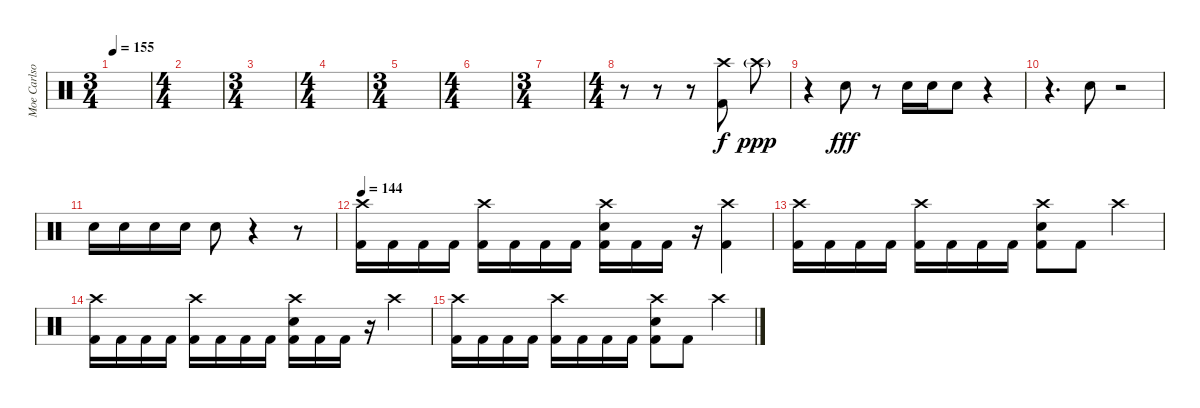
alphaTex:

\track ("Moe Carlson" "Moe Carlso") {solo instrument percussion}
\staff {score}
\articulation defaults
\ts (3 4)
\tempo 155
\clef neutral
\ks c
|
\ts (4 4)
|
\ts (3 4)
|
\ts (4 4)
|
\ts (3 4)
|
\ts (4 4)
|
\ts (3 4)
|
\ts (4 4)
r.8 r.8 r.8 ("Crash high (hit)" "Kick (hit) 2").8 "Crash high (hit)"{g}.8{dy ppp} |
r.4 "Electric Snare (hit)".8{dy fff} r.8 "Electric Snare (hit)".16 "Electric Snare (hit)".16 "Electric Snare (hit)".8 r.4 |
r.4{d} "Electric Snare (hit)".8 r.2 |
"Electric Snare (hit)".16 "Electric Snare (hit)".16 "Electric Snare (hit)".16 "Electric Snare (hit)".16 "Electric Snare (hit)".8 r.4 r.8 |
\tempo 144
("Crash high (hit)" "Kick (hit) 2").16 "Kick (hit) 2".16 "Kick (hit) 2".16 "Kick (hit) 2".16 ("Crash high (hit)" "Kick (hit) 2").16 "Kick (hit) 2".16 "Kick (hit) 2".16 "Kick (hit) 2".16 ("Crash high (hit)" "Electric Snare (hit)" "Kick (hit) 2").16 "Kick (hit) 2".16 "Kick (hit) 2".16 r.16 ("Crash high (hit)" "Kick (hit) 2").4 |
("Crash high (hit)" "Kick (hit) 2").16 "Kick (hit) 2".16 "Kick (hit) 2".16 "Kick (hit) 2".16 ("Crash high (hit)" "Kick (hit) 2").16 "Kick (hit) 2".16 "Kick (hit) 2".16 "Kick (hit) 2".16 ("Crash high (hit)" "Electric Snare (hit)" "Kick (hit) 2").8 "Kick (hit) 2".8 "Crash high (hit)".4 |
("Crash high (hit)" "Kick (hit) 2").16 "Kick (hit) 2".16 "Kick (hit) 2".16 "Kick (hit) 2".16 ("Crash high (hit)" "Kick (hit) 2").16 "Kick (hit) 2".16 "Kick (hit) 2".16 "Kick (hit) 2".16 ("Crash high (hit)" "Electric Snare (hit)" "Kick (hit) 2").16 "Kick (hit) 2".16 "Kick (hit) 2".16 r.16 "Crash high (hit)".4 |
("Crash high (hit)" "Kick (hit) 2").16 "Kick (hit) 2".16 "Kick (hit) 2".16 "Kick (hit) 2".16 ("Crash high (hit)" "Kick (hit) 2").16 "Kick (hit) 2".16 "Kick (hit) 2".16 "Kick (hit) 2".16 ("Crash high (hit)" "Electric Snare (hit)" "Kick (hit) 2").8 "Kick (hit) 2".8 "Crash high (hit)".4
